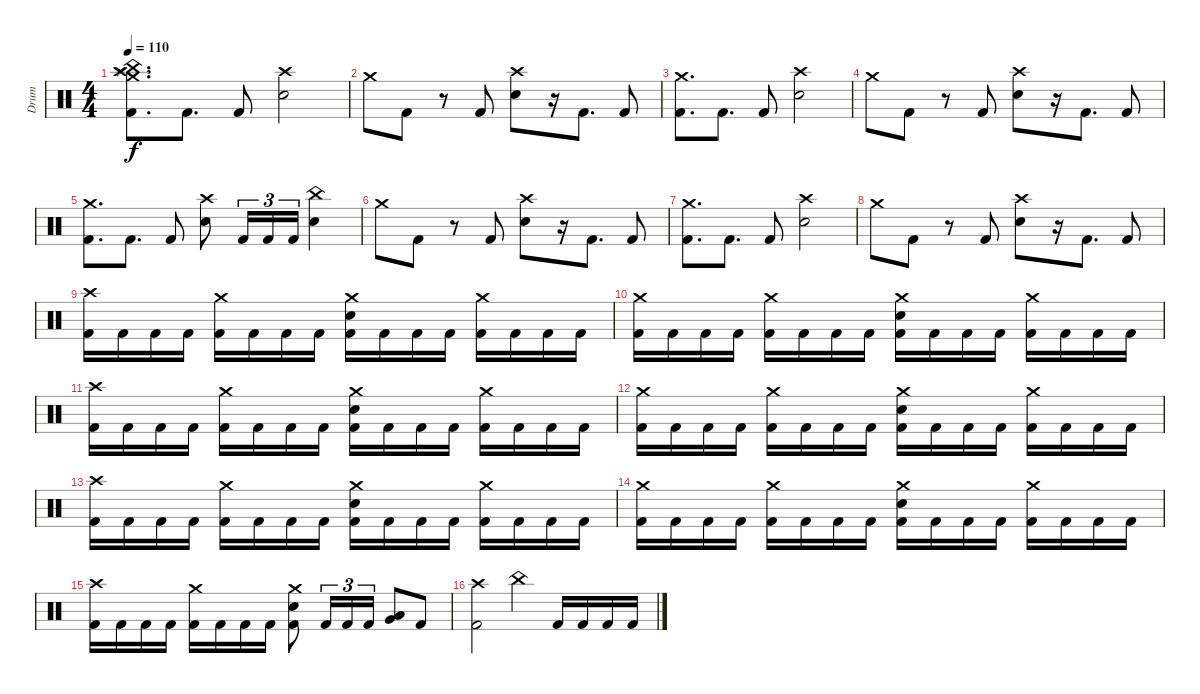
\track ("Drum" "Drum") {instrument percussion}
\staff {score}
\articulation defaults
\ts (4 4)
\tempo 110
\clef neutral
\ks c
("Crash medium (hit)" "China (hit)" "Splash (hit)" "Crash high (hit)" "Kick (hit) 2").8{d dy f} "Kick (hit) 2".8{d} "Kick (hit) 2".8 ("Crash high (hit)" "Electric Snare (hit)").2 |
"Crash medium (hit)".8 "Kick (hit) 2".8 r.8 "Kick (hit) 2".8 ("Crash high (hit)" "Electric Snare (hit)").8 r.16 "Kick (hit) 2".8{d} "Kick (hit) 2".8 |
("Crash medium (hit)" "Kick (hit) 2").8{d} "Kick (hit) 2".8{d} "Kick (hit) 2".8 ("Crash high (hit)" "Electric Snare (hit)").2 |
"Crash medium (hit)".8 "Kick (hit) 2".8 r.8 "Kick (hit) 2".8 ("Crash high (hit)" "Electric Snare (hit)").8 r.16 "Kick (hit) 2".8{d} "Kick (hit) 2".8 |
("Crash medium (hit)" "Kick (hit) 2").8{d} "Kick (hit) 2".8{d} "Kick (hit) 2".8 ("Crash high (hit)" "Electric Snare (hit)").8 "Kick (hit) 2".16{tu (3 2)} "Kick (hit) 2".16{tu (3 2)} "Kick (hit) 2".16{tu (3 2)} ("China (hit)" "Electric Snare (hit)").4 |
"Crash medium (hit)".8 "Kick (hit) 2".8 r.8 "Kick (hit) 2".8 ("Crash high (hit)" "Electric Snare (hit)").8 r.16 "Kick (hit) 2".8{d} "Kick (hit) 2".8 |
("Crash medium (hit)" "Kick (hit) 2").8{d} "Kick (hit) 2".8{d} "Kick (hit) 2".8 ("Crash high (hit)" "Electric Snare (hit)").2 |
"Crash medium (hit)".8 "Kick (hit) 2".8 r.8 "Kick (hit) 2".8 ("Crash high (hit)" "Electric Snare (hit)").8 r.16 "Kick (hit) 2".8{d} "Kick (hit) 2".8 |
("Crash high (hit)" "Kick (hit) 2").16 "Kick (hit) 2".16 "Kick (hit) 2".16 "Kick (hit) 2".16 ("Crash medium (hit)" "Kick (hit) 2").16 "Kick (hit) 2".16 "Kick (hit) 2".16 "Kick (hit) 2".16 ("Crash medium (hit)" "Electric Snare (hit)" "Kick (hit) 2").16 "Kick (hit) 2".16 "Kick (hit) 2".16 "Kick (hit) 2".16 ("Crash medium (hit)" "Kick (hit) 2").16 "Kick (hit) 2".16 "Kick (hit) 2".16 "Kick (hit) 2".16 |
("Crash medium (hit)" "Kick (hit) 2").16 "Kick (hit) 2".16 "Kick (hit) 2".16 "Kick (hit) 2".16 ("Crash medium (hit)" "Kick (hit) 2").16 "Kick (hit) 2".16 "Kick (hit) 2".16 "Kick (hit) 2".16 ("Crash medium (hit)" "Electric Snare (hit)" "Kick (hit) 2").16 "Kick (hit) 2".16 "Kick (hit) 2".16 "Kick (hit) 2".16 ("Crash medium (hit)" "Kick (hit) 2").16 "Kick (hit) 2".16 "Kick (hit) 2".16 "Kick (hit) 2".16 |
("Crash high (hit)" "Kick (hit) 2").16 "Kick (hit) 2".16 "Kick (hit) 2".16 "Kick (hit) 2".16 ("Crash medium (hit)" "Kick (hit) 2").16 "Kick (hit) 2".16 "Kick (hit) 2".16 "Kick (hit) 2".16 ("Crash medium (hit)" "Electric Snare (hit)" "Kick (hit) 2").16 "Kick (hit) 2".16 "Kick (hit) 2".16 "Kick (hit) 2".16 ("Crash medium (hit)" "Kick (hit) 2").16 "Kick (hit) 2".16 "Kick (hit) 2".16 "Kick (hit) 2".16 |
("Crash medium (hit)" "Kick (hit) 2").16 "Kick (hit) 2".16 "Kick (hit) 2".16 "Kick (hit) 2".16 ("Crash medium (hit)" "Kick (hit) 2").16 "Kick (hit) 2".16 "Kick (hit) 2".16 "Kick (hit) 2".16 ("Crash medium (hit)" "Electric Snare (hit)" "Kick (hit) 2").16 "Kick (hit) 2".16 "Kick (hit) 2".16 "Kick (hit) 2".16 ("Crash medium (hit)" "Kick (hit) 2").16 "Kick (hit) 2".16 "Kick (hit) 2".16 "Kick (hit) 2".16 |
("Crash high (hit)" "Kick (hit) 2").16 "Kick (hit) 2".16 "Kick (hit) 2".16 "Kick (hit) 2".16 ("Crash medium (hit)" "Kick (hit) 2").16 "Kick (hit) 2".16 "Kick (hit) 2".16 "Kick (hit) 2".16 ("Crash medium (hit)" "Electric Snare (hit)" "Kick (hit) 2").16 "Kick (hit) 2".16 "Kick (hit) 2".16 "Kick (hit) 2".16 ("Crash medium (hit)" "Kick (hit) 2").16 "Kick (hit) 2".16 "Kick (hit) 2".16 "Kick (hit) 2".16 |
("Crash medium (hit)" "Kick (hit) 2").16 "Kick (hit) 2".16 "Kick (hit) 2".16 "Kick (hit) 2".16 ("Crash medium (hit)" "Kick (hit) 2").16 "Kick (hit) 2".16 "Kick (hit) 2".16 "Kick (hit) 2".16 ("Crash medium (hit)" "Electric Snare (hit)" "Kick (hit) 2").16 "Kick (hit) 2".16 "Kick (hit) 2".16 "Kick (hit) 2".16 ("Crash medium (hit)" "Kick (hit) 2").16 "Kick (hit) 2".16 "Kick (hit) 2".16 "Kick (hit) 2".16 |
("Crash high (hit)" "Kick (hit) 2").16 "Kick (hit) 2".16 "Kick (hit) 2".16 "Kick (hit) 2".16 ("Crash medium (hit)" "Kick (hit) 2").16 "Kick (hit) 2".16 "Kick (hit) 2".16 "Kick (hit) 2".16 ("Crash medium (hit)" "Electric Snare (hit)" "Kick (hit) 2").8 "Kick (hit) 2".16{tu (3 2)} "Kick (hit) 2".16{tu (3 2)} "Kick (hit) 2".16{tu (3 2)} ("Very Low Tom (hit)" "Low Floor Tom (hit)").8 "Kick (hit) 2".8 |
("Crash high (hit)" "Kick (hit) 2").2 "China (hit)".4 "Kick (hit) 2".16 "Kick (hit) 2".16 "Kick (hit) 2".16 "Kick (hit) 2".16
